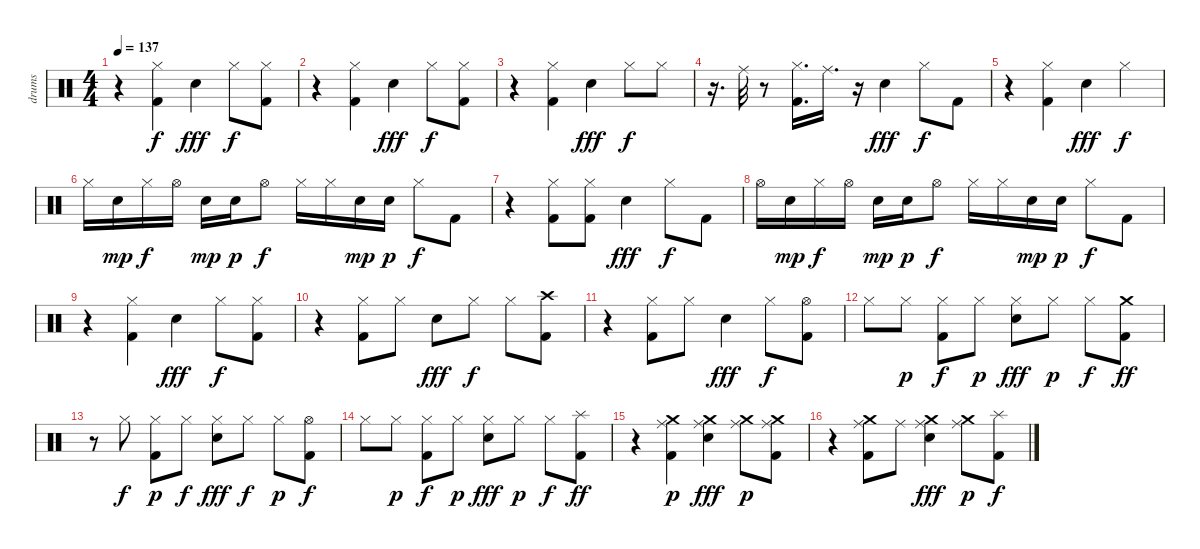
\track ("drums" "drums") {instrument percussion}
\staff {score}
\articulation defaults
\ts (4 4)
\tempo 137
\clef neutral
\ks c
r.4{dy f} ("Kick (hit) 2" "Hi-Hat (closed)").4 "Electric Snare (hit)".4{dy fff} "Hi-Hat (closed)".8{dy f} ("Kick (hit) 2" "Hi-Hat (closed)").8 |
r.4 ("Kick (hit) 2" "Hi-Hat (closed)").4 "Electric Snare (hit)".4{dy fff} "Hi-Hat (closed)".8{dy f} ("Kick (hit) 2" "Hi-Hat (closed)").8 |
r.4 ("Hi-Hat (closed)" "Kick (hit) 2").4 "Electric Snare (hit)".4{dy fff} "Hi-Hat (closed)".8{dy f} "Hi-Hat (closed)".8 |
r.16{d} "Ride (middle)".32 r.8 ("Hi-Hat (closed)" "Kick (hit) 2").16{d} "Ride (middle)".16{d} r.16 "Electric Snare (hit)".4{dy fff} "Hi-Hat (closed)".8{dy f} "Kick (hit) 2".8 |
r.4 ("Hi-Hat (closed)" "Kick (hit) 2").4 "Electric Snare (hit)".4{dy fff} "Hi-Hat (closed)".4{dy f} |
"Hi-Hat (closed)".16 "Electric Snare (hit)".16{dy mp} "Hi-Hat (closed)".16{dy f} "Hi-Hat (open)".16 "Electric Snare (hit)".16{dy mp} "Electric Snare (hit)".16{dy p} "Hi-Hat (open)".8{dy f} "Hi-Hat (closed)".16 "Hi-Hat (closed)".16 "Electric Snare (hit)".16{dy mp} "Electric Snare (hit)".16{dy p} "Hi-Hat (closed)".8{dy f} "Kick (hit) 2".8 |
r.4 ("Hi-Hat (closed)" "Kick (hit) 2").8 ("Hi-Hat (closed)" "Kick (hit) 2").8 "Electric Snare (hit)".4{dy fff} "Hi-Hat (closed)".8{dy f} "Kick (hit) 2".8 |
"Hi-Hat (open)".16 "Electric Snare (hit)".16{dy mp} "Hi-Hat (closed)".16{dy f} "Hi-Hat (open)".16 "Electric Snare (hit)".16{dy mp} "Electric Snare (hit)".16{dy p} "Hi-Hat (open)".8{dy f} "Hi-Hat (closed)".16 "Hi-Hat (closed)".16 "Electric Snare (hit)".16{dy mp} "Electric Snare (hit)".16{dy p} "Hi-Hat (closed)".8{dy f} "Kick (hit) 2".8 |
r.4 ("Kick (hit) 2" "Hi-Hat (closed)").4 "Electric Snare (hit)".4{dy fff} "Hi-Hat (closed)".8{dy f} ("Hi-Hat (closed)" "Kick (hit) 2").8 |
r.4 ("Kick (hit) 2" "Hi-Hat (closed)").8 "Hi-Hat (closed)".8 "Electric Snare (hit)".8{dy fff} "Hi-Hat (closed)".8{dy f} "Hi-Hat (closed)".8 ("Crash high (hit)" "Kick (hit) 2").8 |
r.4 ("Kick (hit) 2" "Hi-Hat (closed)").8 "Hi-Hat (closed)".8 "Electric Snare (hit)".4{dy fff} "Hi-Hat (closed)".8{dy f} ("Hi-Hat (open)" "Kick (hit) 2").8 |
"Hi-Hat (closed)".8 "Hi-Hat (closed)".8{dy p} ("Hi-Hat (closed)" "Kick (hit) 2").8{dy f} "Hi-Hat (closed)".8{dy p} ("Hi-Hat (closed)" "Electric Snare (hit)").8{dy fff} "Hi-Hat (closed)".8{dy p} "Hi-Hat (closed)".8{dy f} ("Crash medium (hit)" "Kick (hit) 2").8{dy ff} |
r.8 "Hi-Hat (closed)".8{dy f} ("Kick (hit) 2" "Hi-Hat (closed)").8{dy p} "Hi-Hat (closed)".8{dy f} ("Hi-Hat (closed)" "Electric Snare (hit)").8{dy fff} "Hi-Hat (closed)".8{dy f} "Hi-Hat (closed)".8{dy p} ("Hi-Hat (open)" "Kick (hit) 2").8{dy f} |
"Hi-Hat (closed)".8 "Hi-Hat (closed)".8{dy p} ("Kick (hit) 2" "Hi-Hat (closed)").8{dy f} "Hi-Hat (closed)".8{dy p} ("Electric Snare (hit)" "Hi-Hat (closed)").8{dy fff} "Hi-Hat (closed)".8{dy p} "Hi-Hat (closed)".8{dy f} ("Kick (hit) 2" "Splash (hit)").8{dy ff} |
r.4 ("Ride (middle)" "Kick (hit) 2" "Crash medium (hit)").4{dy p} ("Ride (middle)" "Crash medium (hit)" "Electric Snare (hit)").4{dy fff} ("Ride (middle)" "Crash medium (hit)").8{dy p} ("Ride (middle)" "Crash medium (hit)" "Kick (hit) 2").8 |
r.4 ("Ride (middle)" "Crash medium (hit)" "Kick (hit) 2").8 "Ride (middle)".8 ("Ride (middle)" "Crash medium (hit)" "Electric Snare (hit)").4{dy fff} ("Ride (middle)" "Crash medium (hit)").8{dy p} ("Splash (hit)" "Kick (hit) 2").8{dy f}
